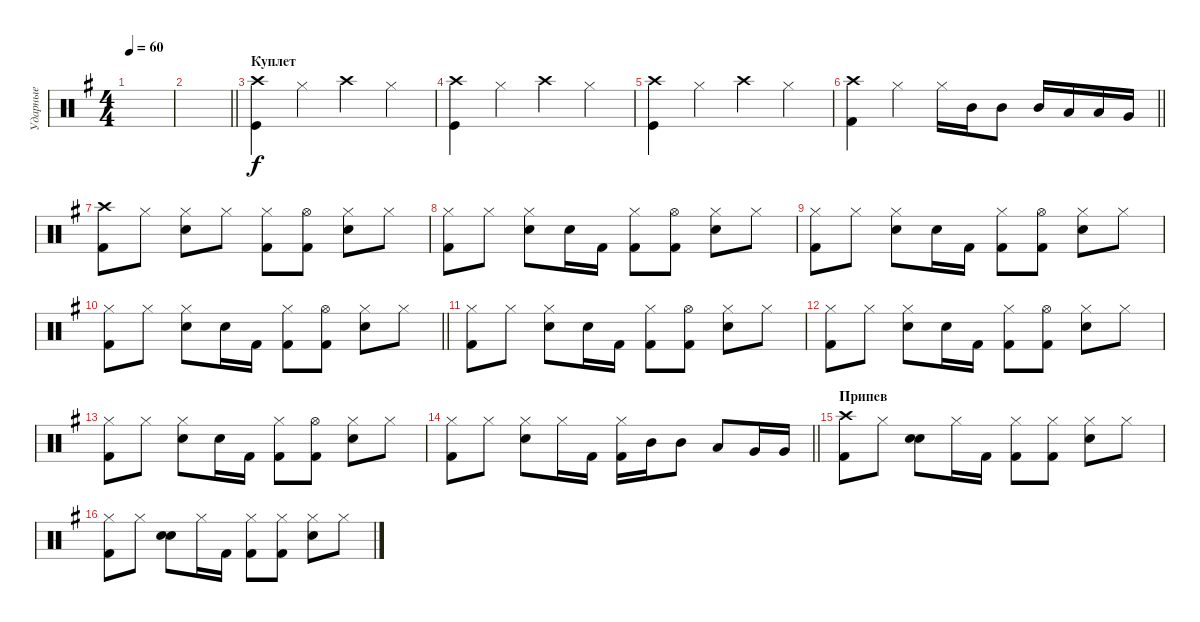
\track ("Ударные" "Ударные") {instrument percussion}
\staff {score}
\articulation defaults
\ts (4 4)
\tempo 60
\clef neutral
\ks g
|
\barLineRight lightlight
|
\section ("" "Куплет")
("Kick (hit)" "Crash high (hit)").4 "Hi-Hat (closed)".4 "Crash high (hit)".4 "Hi-Hat (closed)".4 |
("Kick (hit)" "Crash high (hit)").4 "Hi-Hat (closed)".4 "Crash high (hit)".4 "Hi-Hat (closed)".4 |
("Kick (hit)" "Crash high (hit)").4 "Hi-Hat (closed)".4 "Crash high (hit)".4 "Hi-Hat (closed)".4 |
\barLineRight lightlight
("Kick (hit) 2" "Crash high (hit)").4 "Hi-Hat (closed)".4 "Hi-Hat (closed)".16 "Mid Tom (hit)".16 "Mid Tom (hit)".8 "Mid Tom (hit)".16 "Low Tom (hit)".16 "Low Tom (hit)".16 "Very Low Tom (hit)".16 |
("Kick (hit) 2" "Crash high (hit)").8 "Hi-Hat (closed)".8 ("Hi-Hat (closed)" "Snare (hit) 2").8 "Hi-Hat (closed)".8 ("Hi-Hat (closed)" "Kick (hit) 2").8 ("Hi-Hat (open)" "Kick (hit) 2").8 ("Hi-Hat (closed)" "Snare (hit) 2").8 "Hi-Hat (closed)".8 |
("Hi-Hat (closed)" "Kick (hit) 2").8 "Hi-Hat (closed)".8 ("Hi-Hat (closed)" "Snare (hit) 2").8 "Snare (hit)".16 "Kick (hit) 2".16 ("Hi-Hat (closed)" "Kick (hit) 2").8 ("Hi-Hat (open)" "Kick (hit) 2").8 ("Hi-Hat (closed)" "Snare (hit) 2").8 "Hi-Hat (closed)".8 |
("Hi-Hat (closed)" "Kick (hit) 2").8 "Hi-Hat (closed)".8 ("Hi-Hat (closed)" "Snare (hit) 2").8 "Snare (hit)".16 "Kick (hit) 2".16 ("Hi-Hat (closed)" "Kick (hit) 2").8 ("Hi-Hat (open)" "Kick (hit) 2").8 ("Hi-Hat (closed)" "Snare (hit) 2").8 "Hi-Hat (closed)".8 |
\barLineRight lightlight
("Hi-Hat (closed)" "Kick (hit) 2").8 "Hi-Hat (closed)".8 ("Hi-Hat (closed)" "Snare (hit) 2").8 "Snare (hit)".16 "Kick (hit) 2".16 ("Hi-Hat (closed)" "Kick (hit) 2").8 ("Hi-Hat (open)" "Kick (hit) 2").8 ("Hi-Hat (closed)" "Snare (hit) 2").8 "Hi-Hat (closed)".8 |
("Hi-Hat (closed)" "Kick (hit) 2").8 "Hi-Hat (closed)".8 ("Hi-Hat (closed)" "Snare (hit) 2").8 "Snare (hit)".16 "Kick (hit) 2".16 ("Hi-Hat (closed)" "Kick (hit) 2").8 ("Hi-Hat (open)" "Kick (hit) 2").8 ("Hi-Hat (closed)" "Snare (hit) 2").8 "Hi-Hat (closed)".8 |
("Hi-Hat (closed)" "Kick (hit) 2").8 "Hi-Hat (closed)".8 ("Hi-Hat (closed)" "Snare (hit) 2").8 "Snare (hit)".16 "Kick (hit) 2".16 ("Hi-Hat (closed)" "Kick (hit) 2").8 ("Hi-Hat (open)" "Kick (hit) 2").8 ("Hi-Hat (closed)" "Snare (hit) 2").8 "Hi-Hat (closed)".8 |
("Hi-Hat (closed)" "Kick (hit) 2").8 "Hi-Hat (closed)".8 ("Hi-Hat (closed)" "Snare (hit) 2").8 "Snare (hit)".16 "Kick (hit) 2".16 ("Hi-Hat (closed)" "Kick (hit) 2").8 ("Hi-Hat (open)" "Kick (hit) 2").8 ("Hi-Hat (closed)" "Snare (hit) 2").8 "Hi-Hat (closed)".8 |
\barLineRight lightlight
("Hi-Hat (closed)" "Kick (hit) 2").8 "Hi-Hat (closed)".8 ("Hi-Hat (closed)" "Snare (hit) 2").8 "Hi-Hat (closed)".16 "Kick (hit) 2".16 ("Hi-Hat (closed)" "Kick (hit) 2").16 "Mid Tom (hit)".16 "Mid Tom (hit)".8 "Low Tom (hit)".8 "Very Low Tom (hit)".16 "Very Low Tom (hit)".16 |
\section ("" "Припев")
("Kick (hit) 2" "Crash high (hit)").8 "Hi-Hat (closed)".8 ("Snare (hit)" "Snare (hit) 2").8 "Hi-Hat (closed)".16 "Kick (hit) 2".16 ("Hi-Hat (closed)" "Kick (hit) 2").8 ("Hi-Hat (closed)" "Kick (hit) 2").8 ("Hi-Hat (closed)" "Snare (hit) 2").8 "Hi-Hat (closed)".8 |
("Hi-Hat (closed)" "Kick (hit) 2").8 "Hi-Hat (closed)".8 ("Snare (hit)" "Snare (hit) 2").8 "Hi-Hat (closed)".16 "Kick (hit) 2".16 ("Hi-Hat (closed)" "Kick (hit) 2").8 ("Hi-Hat (closed)" "Kick (hit) 2").8 ("Hi-Hat (closed)" "Snare (hit) 2").8 "Hi-Hat (closed)".8
